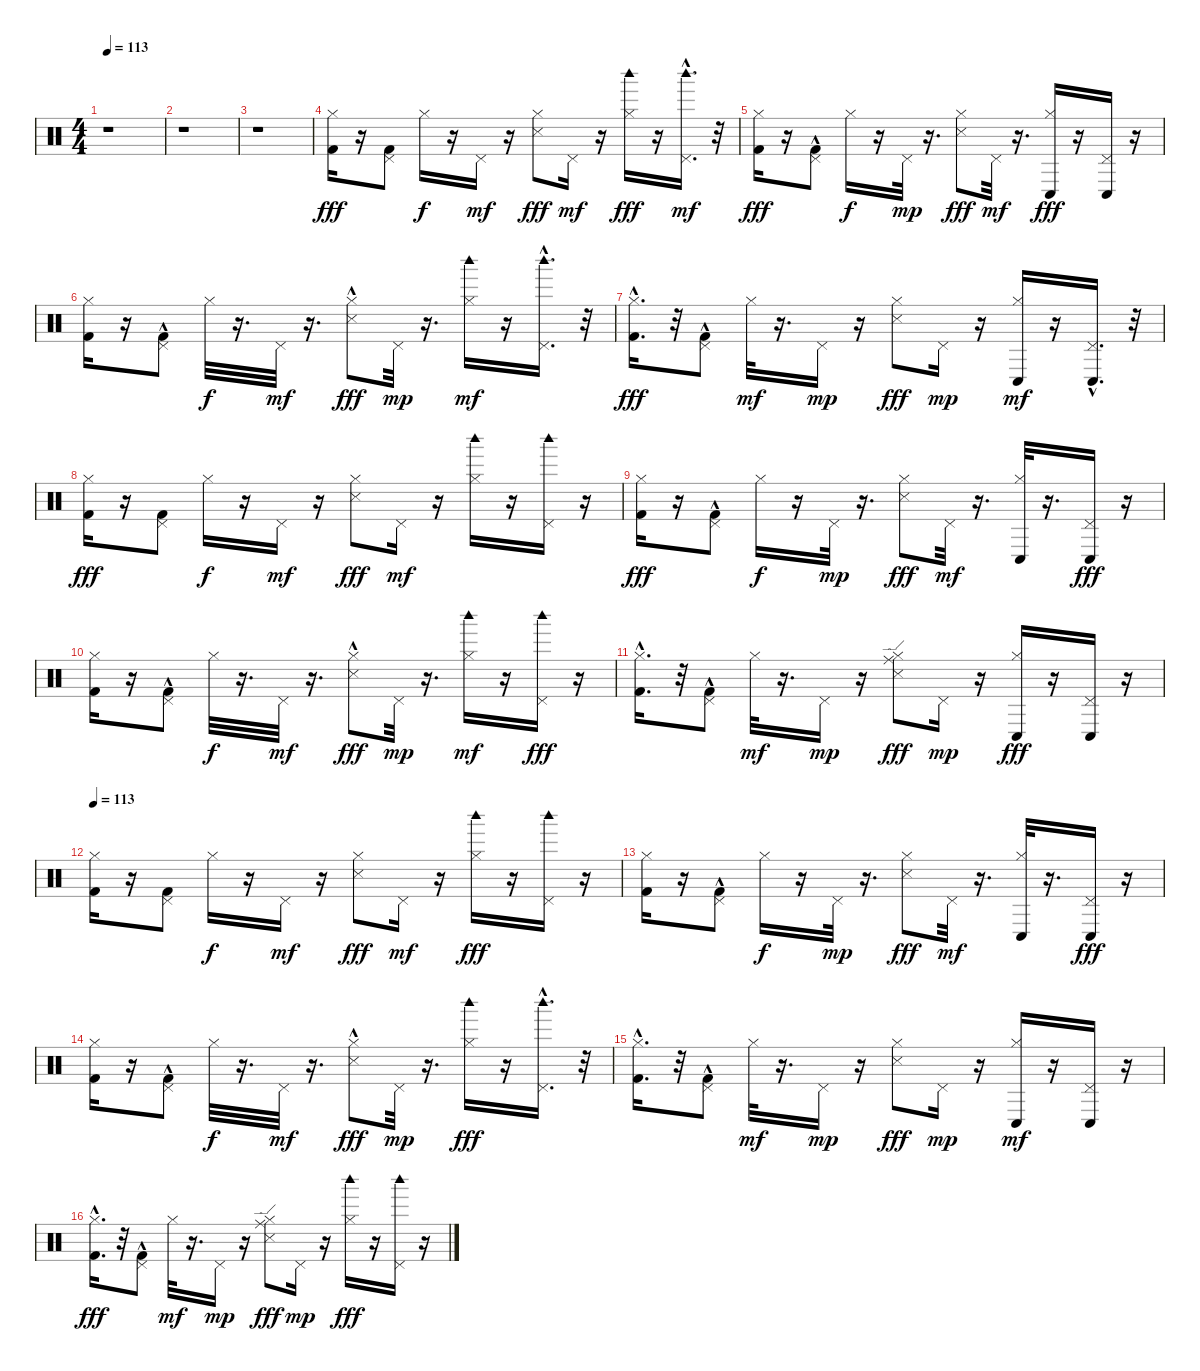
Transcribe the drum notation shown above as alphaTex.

\track "" {instrument percussion}
\staff {score}
\articulation defaults
\ts (4 4)
\tempo 113
\clef neutral
\ks c
r.1{dy fff} |
r.1 |
r.1 |
("Hi-Hat (closed)" "Kick (hit) 2").16 r.16 ("Pedal Hi-Hat (hit)" "Kick (hit) 2").8 "Hi-Hat (closed)".16{dy f} r.16 "Pedal Hi-Hat (hit)".16{dy mf} r.16 ("Hi-Hat (closed)" "Snare (side stick) 3").8{dy fff} "Pedal Hi-Hat (hit)".16{dy mf} r.16 ("Hi-Hat (closed)" "Woodblock high (hit)").16{dy fff} r.16 ("Woodblock high (hit)"{hac} "Pedal Hi-Hat (hit)").16{d dy mf} r.32 |
("Hi-Hat (closed)" "Kick (hit) 2").16{dy fff} r.16 ("Pedal Hi-Hat (hit)" "Kick (hit) 2"{hac}).8 "Hi-Hat (closed)".16{dy f} r.16 "Pedal Hi-Hat (hit)".32{dy mp} r.16{d} ("Hi-Hat (closed)" "Snare (side stick) 3").8{dy fff} "Pedal Hi-Hat (hit)".32{dy mf} r.16{d} ("Hi-Hat (closed)" "Conga low (hit)").16{dy fff} r.16 ("Pedal Hi-Hat (hit)" "Conga low (hit)").16 r.16 |
("Hi-Hat (closed)" "Kick (hit) 2").16 r.16 ("Pedal Hi-Hat (hit)" "Kick (hit) 2"{hac}).8 "Hi-Hat (closed)".32{dy f} r.16{d} "Pedal Hi-Hat (hit)".32{dy mf} r.16{d} ("Hi-Hat (closed)" "Snare (side stick) 3"{hac}).8{dy fff} "Pedal Hi-Hat (hit)".32{dy mp} r.16{d} ("Woodblock high (hit)" "Hi-Hat (closed)").16{dy mf} r.16 ("Woodblock high (hit)"{hac} "Pedal Hi-Hat (hit)").16{d} r.32 |
("Hi-Hat (closed)" "Kick (hit) 2"{hac}).16{d dy fff} r.32 ("Pedal Hi-Hat (hit)" "Kick (hit) 2"{hac}).8 "Hi-Hat (closed)".32{dy mf} r.16{d} "Pedal Hi-Hat (hit)".16{dy mp} r.16 ("Hi-Hat (closed)" "Snare (side stick) 3").8{dy fff} "Pedal Hi-Hat (hit)".16{dy mp} r.16 ("Conga low (hit)" "Hi-Hat (closed)").16{dy mf} r.16 ("Conga low (hit)"{hac} "Pedal Hi-Hat (hit)").16{d} r.32 |
("Hi-Hat (closed)" "Kick (hit) 2").16{dy fff} r.16 ("Pedal Hi-Hat (hit)" "Kick (hit) 2").8 "Hi-Hat (closed)".16{dy f} r.16 "Pedal Hi-Hat (hit)".16{dy mf} r.16 ("Hi-Hat (closed)" "Snare (side stick) 3").8{dy fff} "Pedal Hi-Hat (hit)".16{dy mf} r.16 ("Woodblock high (hit)" "Hi-Hat (closed)").16 r.16 ("Woodblock high (hit)" "Pedal Hi-Hat (hit)").16 r.16 |
("Hi-Hat (closed)" "Kick (hit) 2").16{dy fff} r.16 ("Pedal Hi-Hat (hit)" "Kick (hit) 2"{hac}).8 "Hi-Hat (closed)".16{dy f} r.16 "Pedal Hi-Hat (hit)".32{dy mp} r.16{d} ("Hi-Hat (closed)" "Snare (side stick) 3").8{dy fff} "Pedal Hi-Hat (hit)".32{dy mf} r.16{d} ("Conga low (hit)" "Hi-Hat (closed)").32 r.16{d} ("Pedal Hi-Hat (hit)" "Conga low (hit)").16{dy fff} r.16 |
("Hi-Hat (closed)" "Kick (hit) 2").16 r.16 ("Pedal Hi-Hat (hit)" "Kick (hit) 2"{hac}).8 "Hi-Hat (closed)".32{dy f} r.16{d} "Pedal Hi-Hat (hit)".32{dy mf} r.16{d} ("Hi-Hat (closed)" "Snare (side stick) 3"{hac}).8{dy fff} "Pedal Hi-Hat (hit)".32{dy mp} r.16{d} ("Woodblock high (hit)" "Hi-Hat (closed)").16{dy mf} r.16 ("Pedal Hi-Hat (hit)" "Woodblock high (hit)").16{dy fff} r.16 |
("Hi-Hat (closed)" "Kick (hit) 2"{hac}).16{d} r.32 ("Pedal Hi-Hat (hit)" "Kick (hit) 2"{hac}).8 "Hi-Hat (closed)".32{dy mf} r.16{d} "Pedal Hi-Hat (hit)".16{dy mp} r.16 ("Ride (edge)" "Hi-Hat (closed)" "Snare (side stick) 3").8{dy fff} "Pedal Hi-Hat (hit)".16{dy mp} r.16 ("Hi-Hat (closed)" "Conga low (hit)").16{dy fff} r.16 ("Pedal Hi-Hat (hit)" "Conga low (hit)").16 r.16 |
\tempo 113
("Hi-Hat (closed)" "Kick (hit) 2").16 r.16 ("Pedal Hi-Hat (hit)" "Kick (hit) 2").8 "Hi-Hat (closed)".16{dy f} r.16 "Pedal Hi-Hat (hit)".16{dy mf} r.16 ("Hi-Hat (closed)" "Snare (side stick) 3").8{dy fff} "Pedal Hi-Hat (hit)".16{dy mf} r.16 ("Hi-Hat (closed)" "Woodblock high (hit)").16{dy fff} r.16 ("Pedal Hi-Hat (hit)" "Woodblock high (hit)").16 r.16 |
("Hi-Hat (closed)" "Kick (hit) 2").16 r.16 ("Pedal Hi-Hat (hit)" "Kick (hit) 2"{hac}).8 "Hi-Hat (closed)".16{dy f} r.16 "Pedal Hi-Hat (hit)".32{dy mp} r.16{d} ("Hi-Hat (closed)" "Snare (side stick) 3").8{dy fff} "Pedal Hi-Hat (hit)".32{dy mf} r.16{d} ("Conga low (hit)" "Hi-Hat (closed)").32 r.16{d} ("Pedal Hi-Hat (hit)" "Conga low (hit)").16{dy fff} r.16 |
("Hi-Hat (closed)" "Kick (hit) 2").16 r.16 ("Pedal Hi-Hat (hit)" "Kick (hit) 2"{hac}).8 "Hi-Hat (closed)".32{dy f} r.16{d} "Pedal Hi-Hat (hit)".32{dy mf} r.16{d} ("Hi-Hat (closed)" "Snare (side stick) 3"{hac}).8{dy fff} "Pedal Hi-Hat (hit)".32{dy mp} r.16{d} ("Hi-Hat (closed)" "Woodblock high (hit)").16{dy fff} r.16 ("Pedal Hi-Hat (hit)" "Woodblock high (hit)"{hac}).16{d} r.32 |
("Hi-Hat (closed)" "Kick (hit) 2"{hac}).16{d} r.32 ("Pedal Hi-Hat (hit)" "Kick (hit) 2"{hac}).8 "Hi-Hat (closed)".32{dy mf} r.16{d} "Pedal Hi-Hat (hit)".16{dy mp} r.16 ("Hi-Hat (closed)" "Snare (side stick) 3").8{dy fff} "Pedal Hi-Hat (hit)".16{dy mp} r.16 ("Conga low (hit)" "Hi-Hat (closed)").16{dy mf} r.16 ("Conga low (hit)" "Pedal Hi-Hat (hit)").16 r.16 |
("Hi-Hat (closed)" "Kick (hit) 2"{hac}).16{d dy fff} r.32 ("Pedal Hi-Hat (hit)" "Kick (hit) 2"{hac}).8 "Hi-Hat (closed)".32{dy mf} r.16{d} "Pedal Hi-Hat (hit)".16{dy mp} r.16 ("Ride (edge)" "Hi-Hat (closed)" "Snare (side stick) 3").8{dy fff} "Pedal Hi-Hat (hit)".16{dy mp} r.16 ("Hi-Hat (closed)" "Woodblock high (hit)").16{dy fff} r.16 ("Pedal Hi-Hat (hit)" "Woodblock high (hit)").16 r.16
